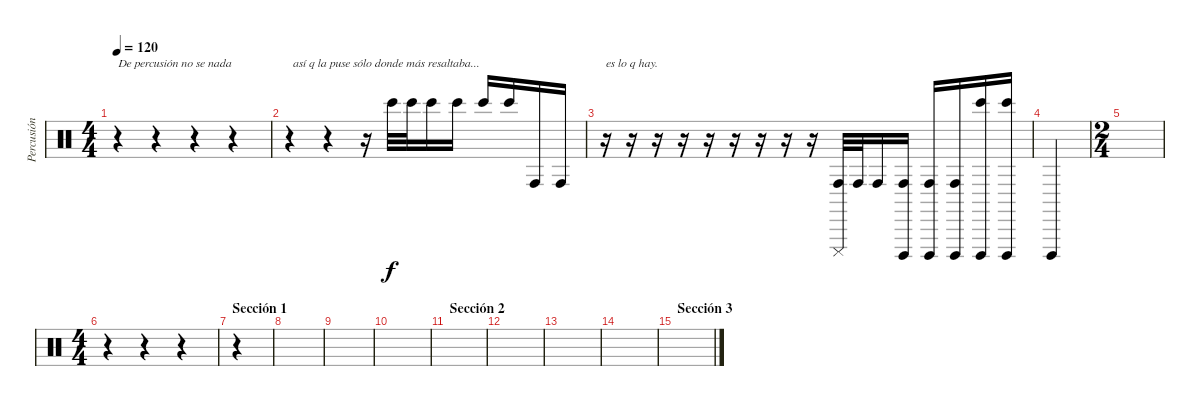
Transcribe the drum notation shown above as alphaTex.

\track ("Percusión" "Percusión") {instrument percussion}
\staff {score}
\articulation defaults
\ts (4 4)
\section ("" "")
\tempo 120
\clef neutral
\ks c
r.4{txt "De percusión no se nada" dy f} r.4 r.4 r.4 |
r.4{txt " así q la puse sólo donde más resaltaba..."} r.4 r.16 "Bongo High (hit)".32 "Bongo High (hit)".32 "Bongo High (hit)".16 "Bongo High (hit)".16 "Bongo High (hit)".16 "Bongo High (hit)".16 "Conga high (hit)".16 "Conga high (hit)".16 |
r.16{txt "es lo q hay."} r.16 r.16 r.16 r.16 r.16 r.16 r.16 r.16 ("Cuica (mute)" "Conga high (hit)").32 "Conga high (hit)".32 "Conga high (hit)".16 ("Cuica (open)" "Conga high (hit)").16 ("Cuica (open)" "Conga high (hit)").16 ("Cuica (open)" "Conga high (hit)").16 ("Cuica (open)" "Bongo High (hit)").16 ("Cuica (open)" "Bongo High (hit)").16 |
"Cuica (open)".4 |
\ts (2 4)
|
\ts (4 4)
r.4 r.4 r.4 |
\section ("" "Sección 1")
r.4 |
|
|
|
\section ("" "Sección 2")
|
|
|
|
\section ("" "Sección 3")
